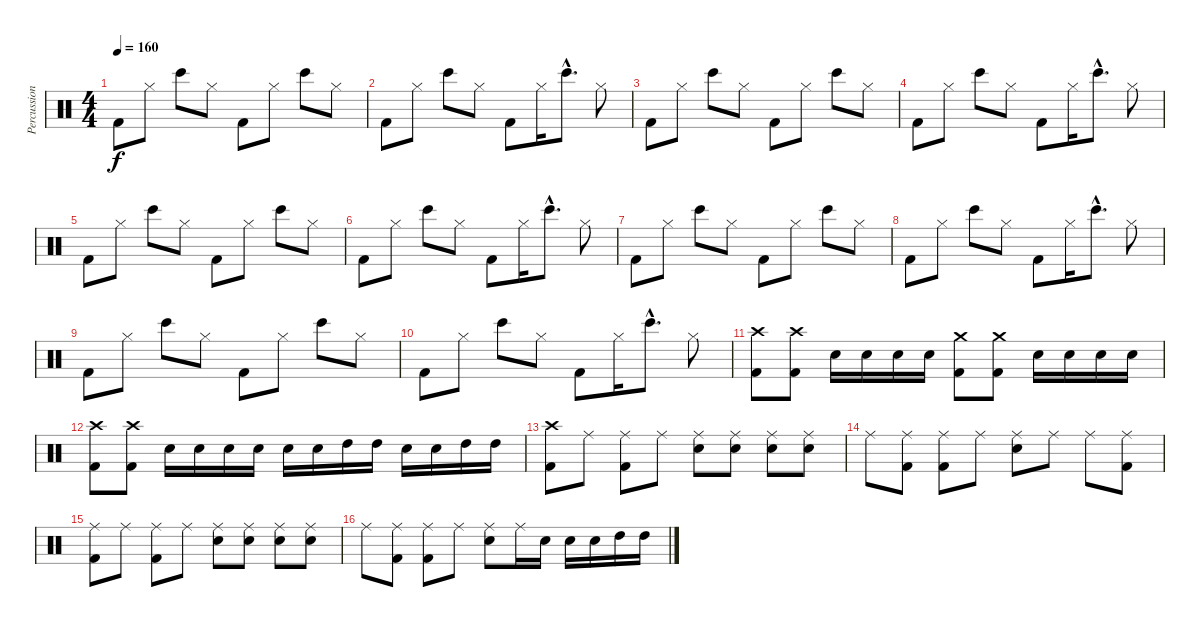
\track ("Percussion" "Percussion") {instrument percussion}
\staff {score}
\articulation defaults
\ts (4 4)
\tempo 160
\clef neutral
\ks c "Kick (hit) 2".8{dy f} "Hi-Hat (closed)".8 "Bongo High (hit)".8 "Hi-Hat (closed)".8 "Kick (hit) 2".8 "Hi-Hat (closed)".8 "Bongo High (hit)".8 "Hi-Hat (closed)".8
|
"Kick (hit) 2".8 "Hi-Hat (closed)".8 "Bongo High (hit)".8 "Hi-Hat (closed)".8 "Kick (hit) 2".8 "Hi-Hat (closed)".16 "Bongo High (hit)"{hac}.8{d} "Hi-Hat (closed)".8 |
"Kick (hit) 2".8 "Hi-Hat (closed)".8 "Bongo High (hit)".8 "Hi-Hat (closed)".8 "Kick (hit) 2".8 "Hi-Hat (closed)".8 "Bongo High (hit)".8 "Hi-Hat (closed)".8 |
"Kick (hit) 2".8 "Hi-Hat (closed)".8 "Bongo High (hit)".8 "Hi-Hat (closed)".8 "Kick (hit) 2".8 "Hi-Hat (closed)".16 "Bongo High (hit)"{hac}.8{d} "Hi-Hat (closed)".8 |
"Kick (hit) 2".8 "Hi-Hat (closed)".8 "Bongo High (hit)".8 "Hi-Hat (closed)".8 "Kick (hit) 2".8 "Hi-Hat (closed)".8 "Bongo High (hit)".8 "Hi-Hat (closed)".8 |
"Kick (hit) 2".8 "Hi-Hat (closed)".8 "Bongo High (hit)".8 "Hi-Hat (closed)".8 "Kick (hit) 2".8 "Hi-Hat (closed)".16 "Bongo High (hit)"{hac}.8{d} "Hi-Hat (closed)".8 |
"Kick (hit) 2".8 "Hi-Hat (closed)".8 "Bongo High (hit)".8 "Hi-Hat (closed)".8 "Kick (hit) 2".8 "Hi-Hat (closed)".8 "Bongo High (hit)".8 "Hi-Hat (closed)".8 |
"Kick (hit) 2".8 "Hi-Hat (closed)".8 "Bongo High (hit)".8 "Hi-Hat (closed)".8 "Kick (hit) 2".8 "Hi-Hat (closed)".16 "Bongo High (hit)"{hac}.8{d} "Hi-Hat (closed)".8 |
"Kick (hit) 2".8 "Hi-Hat (closed)".8 "Bongo High (hit)".8 "Hi-Hat (closed)".8 "Kick (hit) 2".8 "Hi-Hat (closed)".8 "Bongo High (hit)".8 "Hi-Hat (closed)".8 |
"Kick (hit) 2".8 "Hi-Hat (closed)".8 "Bongo High (hit)".8 "Hi-Hat (closed)".8 "Kick (hit) 2".8 "Hi-Hat (closed)".16 "Bongo High (hit)"{hac}.8{d} "Hi-Hat (closed)".8 |
("Crash high (hit)" "Kick (hit) 2").8 ("Crash high (hit)" "Kick (hit) 2").8 "Electric Snare (hit)".16 "Electric Snare (hit)".16 "Electric Snare (hit)".16 "Electric Snare (hit)".16 ("Crash medium (hit)" "Kick (hit) 2").8 ("Crash medium (hit)" "Kick (hit) 2").8 "Electric Snare (hit)".16 "Electric Snare (hit)".16 "Electric Snare (hit)".16 "Electric Snare (hit)".16 |
("Crash high (hit)" "Kick (hit) 2").8 ("Crash high (hit)" "Kick (hit) 2").8 "Electric Snare (hit)".16 "Electric Snare (hit)".16 "Electric Snare (hit)".16 "Electric Snare (hit)".16 "Electric Snare (hit)".16 "Electric Snare (hit)".16 "High Tom (hit)".16 "High Tom (hit)".16 "Electric Snare (hit)".16 "Electric Snare (hit)".16 "High Tom (hit)".16 "High Tom (hit)".16 |
("Crash high (hit)" "Kick (hit) 2").8 "Ride (middle)".8 ("Ride (middle)" "Kick (hit) 2").8 "Ride (middle)".8 ("Ride (middle)" "Electric Snare (hit)").8 ("Ride (middle)" "Electric Snare (hit)").8 ("Ride (middle)" "Electric Snare (hit)").8 ("Ride (middle)" "Electric Snare (hit)").8 |
"Ride (middle)".8 ("Ride (middle)" "Kick (hit) 2").8 ("Ride (middle)" "Kick (hit) 2").8 "Ride (middle)".8 ("Ride (middle)" "Electric Snare (hit)").8 "Ride (middle)".8 "Ride (middle)".8 ("Ride (middle)" "Kick (hit) 2").8 |
("Ride (middle)" "Kick (hit) 2").8 "Ride (middle)".8 ("Ride (middle)" "Kick (hit) 2").8 "Ride (middle)".8 ("Ride (middle)" "Electric Snare (hit)").8 ("Ride (middle)" "Electric Snare (hit)").8 ("Ride (middle)" "Electric Snare (hit)").8 ("Ride (middle)" "Electric Snare (hit)").8 |
"Ride (middle)".8 ("Ride (middle)" "Kick (hit) 2").8 ("Ride (middle)" "Kick (hit) 2").8 "Ride (middle)".8 ("Ride (middle)" "Electric Snare (hit)").8 "Ride (middle)".16 "Electric Snare (hit)".16 "Electric Snare (hit)".16 "Electric Snare (hit)".16 "High Tom (hit)".16 "High Tom (hit)".16
